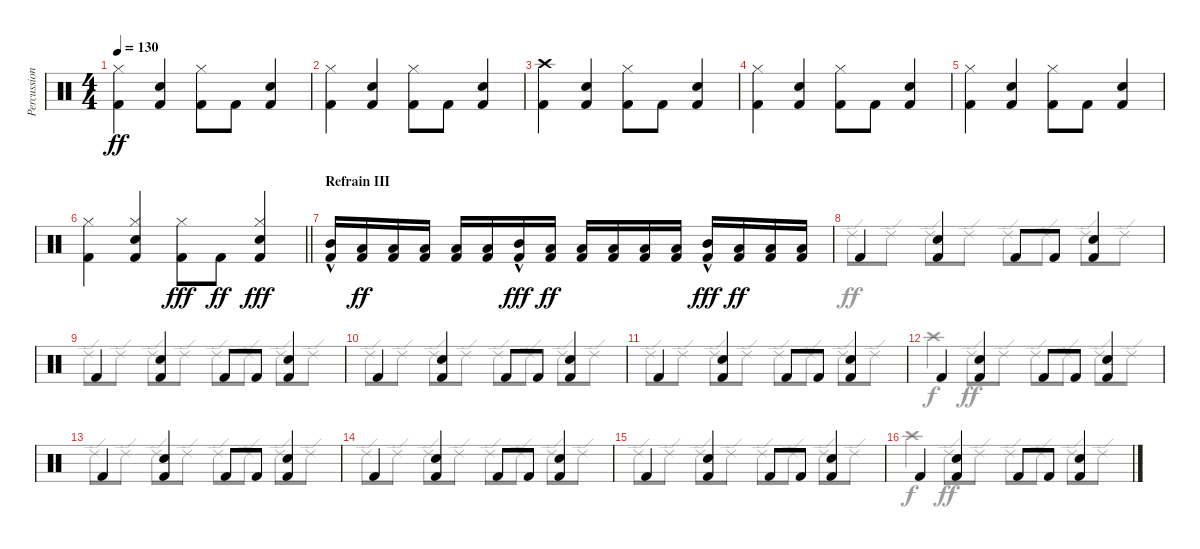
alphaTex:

\track ("Percussions" "Percussion") {instrument percussion}
\staff {score}
\articulation defaults
\voice
\ts (4 4)
\tempo 130
\clef neutral
\ks c
("Kick (hit) 2" "Hi-Hat (closed)").4{dy ff} ("Kick (hit) 2" "Electric Snare (hit)").4 ("Kick (hit) 2" "Hi-Hat (closed)").8 "Kick (hit) 2".8 ("Kick (hit) 2" "Electric Snare (hit)").4 |
("Kick (hit) 2" "Hi-Hat (closed)").4 ("Kick (hit) 2" "Electric Snare (hit)").4 ("Kick (hit) 2" "Hi-Hat (closed)").8 "Kick (hit) 2".8 ("Kick (hit) 2" "Electric Snare (hit)").4 |
("Kick (hit) 2" "Crash high (hit)").4 ("Kick (hit) 2" "Electric Snare (hit)").4 ("Kick (hit) 2" "Hi-Hat (closed)").8 "Kick (hit) 2".8 ("Kick (hit) 2" "Electric Snare (hit)").4 |
("Kick (hit) 2" "Hi-Hat (closed)").4 ("Kick (hit) 2" "Electric Snare (hit)").4 ("Kick (hit) 2" "Hi-Hat (closed)").8 "Kick (hit) 2".8 ("Kick (hit) 2" "Electric Snare (hit)").4 |
("Kick (hit) 2" "Hi-Hat (closed)").4 ("Kick (hit) 2" "Electric Snare (hit)").4 ("Kick (hit) 2" "Hi-Hat (closed)").8 "Kick (hit) 2".8 ("Kick (hit) 2" "Electric Snare (hit)").4 |
\barLineRight lightlight
("Kick (hit) 2" "Hi-Hat (closed)").4 ("Kick (hit) 2" "Electric Snare (hit)" "Hi-Hat (closed)").4 ("Kick (hit) 2" "Hi-Hat (closed)").8{dy fff} "Kick (hit) 2".8{dy ff} ("Kick (hit) 2" "Electric Snare (hit)" "Hi-Hat (closed)").4{dy fff} |
\section ("" "Refrain III")
("Kick (hit) 2"{hac} "Mid Tom (hit)"{hac}).16 ("Kick (hit) 2" "Low Tom (hit)").16{dy ff} ("Kick (hit) 2" "Low Tom (hit)").16 ("Kick (hit) 2" "Low Tom (hit)").16 ("Kick (hit) 2" "Low Tom (hit)").16 ("Kick (hit) 2" "Low Tom (hit)").16 ("Kick (hit) 2"{hac} "Mid Tom (hit)"{hac}).16{dy fff} ("Kick (hit) 2" "Low Tom (hit)").16{dy ff} ("Kick (hit) 2" "Low Tom (hit)").16 ("Kick (hit) 2" "Low Tom (hit)").16 ("Kick (hit) 2" "Low Tom (hit)").16 ("Kick (hit) 2" "Low Tom (hit)").16 ("Kick (hit) 2"{hac} "Mid Tom (hit)"{hac}).16{dy fff} ("Kick (hit) 2" "Low Tom (hit)").16{dy ff} ("Kick (hit) 2" "Low Tom (hit)").16 ("Kick (hit) 2" "Low Tom (hit)").16 |
"Kick (hit) 2".4 ("Kick (hit) 2" "Electric Snare (hit)").4 "Kick (hit) 2".8 "Kick (hit) 2".8 ("Kick (hit) 2" "Electric Snare (hit)").4 |
"Kick (hit) 2".4 ("Kick (hit) 2" "Electric Snare (hit)").4 "Kick (hit) 2".8 "Kick (hit) 2".8 ("Kick (hit) 2" "Electric Snare (hit)").4 |
"Kick (hit) 2".4 ("Kick (hit) 2" "Electric Snare (hit)").4 "Kick (hit) 2".8 "Kick (hit) 2".8 ("Kick (hit) 2" "Electric Snare (hit)").4 |
"Kick (hit) 2".4 ("Kick (hit) 2" "Electric Snare (hit)").4 "Kick (hit) 2".8 "Kick (hit) 2".8 ("Kick (hit) 2" "Electric Snare (hit)").4 |
"Kick (hit) 2".4 ("Kick (hit) 2" "Electric Snare (hit)").4 "Kick (hit) 2".8 "Kick (hit) 2".8 ("Kick (hit) 2" "Electric Snare (hit)").4 |
"Kick (hit) 2".4 ("Kick (hit) 2" "Electric Snare (hit)").4 "Kick (hit) 2".8 "Kick (hit) 2".8 ("Kick (hit) 2" "Electric Snare (hit)").4 |
"Kick (hit) 2".4 ("Kick (hit) 2" "Electric Snare (hit)").4 "Kick (hit) 2".8 "Kick (hit) 2".8 ("Kick (hit) 2" "Electric Snare (hit)").4 |
"Kick (hit) 2".4 ("Kick (hit) 2" "Electric Snare (hit)").4 "Kick (hit) 2".8 "Kick (hit) 2".8 ("Kick (hit) 2" "Electric Snare (hit)").4 |
"Kick (hit) 2".4 ("Kick (hit) 2" "Electric Snare (hit)").4 "Kick (hit) 2".8 "Kick (hit) 2".8 ("Kick (hit) 2" "Electric Snare (hit)").4
\voice
\clef neutral
\ottava regular
\simile none
\ks c
|
|
|
|
|
\barLineRight lightlight
|
|
"Ride (edge) 2".8{dy ff} "Ride (edge) 2".8 "Ride (edge) 2".8 "Ride (edge) 2".8 "Ride (edge) 2".8 "Ride (edge) 2".8 "Ride (edge) 2".8 "Ride (edge) 2".8 |
"Ride (edge) 2".8 "Ride (edge) 2".8 "Ride (edge) 2".8 "Ride (edge) 2".8 "Ride (edge) 2".8 "Ride (edge) 2".8 "Ride (edge) 2".8 "Ride (edge) 2".8 |
"Ride (edge) 2".8 "Ride (edge) 2".8 "Ride (edge) 2".8 "Ride (edge) 2".8 "Ride (edge) 2".8 "Ride (edge) 2".8 "Ride (edge) 2".8 "Ride (edge) 2".8 |
"Ride (edge) 2".8 "Ride (edge) 2".8 "Ride (edge) 2".8 "Ride (edge) 2".8 "Ride (edge) 2".8 "Ride (edge) 2".8 "Ride (edge) 2".8 "Ride (edge) 2".8 |
"Crash high (hit)".4{dy f} "Ride (edge) 2".8{dy ff} "Ride (edge) 2".8 "Ride (edge) 2".8 "Ride (edge) 2".8 "Ride (edge) 2".8 "Ride (edge) 2".8 |
"Ride (edge) 2".8 "Ride (edge) 2".8 "Ride (edge) 2".8 "Ride (edge) 2".8 "Ride (edge) 2".8 "Ride (edge) 2".8 "Ride (edge) 2".8 "Ride (edge) 2".8 |
"Ride (edge) 2".8 "Ride (edge) 2".8 "Ride (edge) 2".8 "Ride (edge) 2".8 "Ride (edge) 2".8 "Ride (edge) 2".8 "Ride (edge) 2".8 "Ride (edge) 2".8 |
"Ride (edge) 2".8 "Ride (edge) 2".8 "Ride (edge) 2".8 "Ride (edge) 2".8 "Ride (edge) 2".8 "Ride (edge) 2".8 "Ride (edge) 2".8 "Ride (edge) 2".8 |
"Crash high (hit)".4{dy f} "Ride (edge) 2".8{dy ff} "Ride (edge) 2".8 "Ride (edge) 2".8 "Ride (edge) 2".8 "Ride (edge) 2".8 "Ride (edge) 2".8
